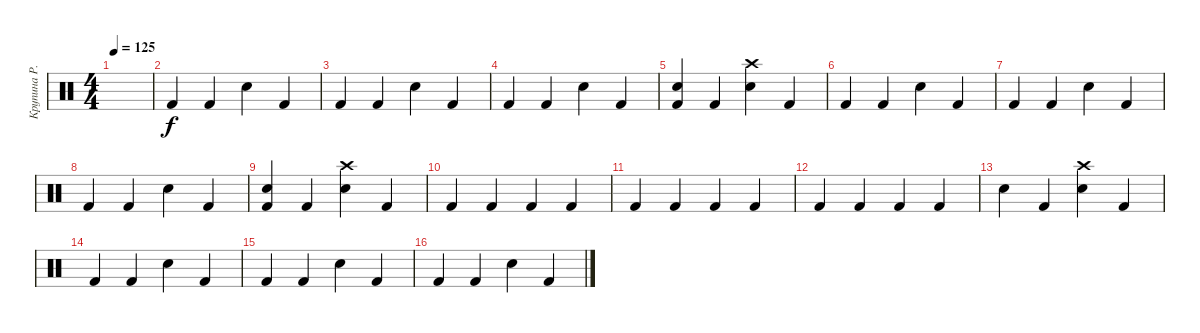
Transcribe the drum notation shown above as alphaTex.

\track ("Крупина Р.В." "Крупина Р.") {instrument percussion}
\staff {score}
\articulation defaults
\ts (4 4)
\tempo 125
\clef neutral
\ks c
|
"Kick (hit) 2".4 "Kick (hit) 2".4 "Snare (hit) 2".4 "Kick (hit) 2".4 |
"Kick (hit) 2".4 "Kick (hit) 2".4 "Snare (hit) 2".4 "Kick (hit) 2".4 |
"Kick (hit) 2".4 "Kick (hit) 2".4 "Snare (hit) 2".4 "Kick (hit) 2".4 |
("Snare (hit) 2" "Kick (hit) 2").4 "Kick (hit) 2".4 ("Crash high (hit)" "Snare (hit) 2").4 "Kick (hit) 2".4 |
"Kick (hit) 2".4 "Kick (hit) 2".4 "Snare (hit) 2".4 "Kick (hit) 2".4 |
"Kick (hit) 2".4 "Kick (hit) 2".4 "Snare (hit) 2".4 "Kick (hit) 2".4 |
"Kick (hit) 2".4 "Kick (hit) 2".4 "Snare (hit) 2".4 "Kick (hit) 2".4 |
("Snare (hit) 2" "Kick (hit) 2").4 "Kick (hit) 2".4 ("Crash high (hit)" "Snare (hit) 2").4 "Kick (hit) 2".4 |
"Kick (hit) 2".4 "Kick (hit) 2".4 "Kick (hit) 2".4 "Kick (hit) 2".4 |
"Kick (hit) 2".4 "Kick (hit) 2".4 "Kick (hit) 2".4 "Kick (hit) 2".4 |
"Kick (hit) 2".4 "Kick (hit) 2".4 "Kick (hit) 2".4 "Kick (hit) 2".4 |
"Snare (hit) 2".4 "Kick (hit) 2".4 ("Crash high (hit)" "Snare (hit) 2").4 "Kick (hit) 2".4 |
"Kick (hit) 2".4 "Kick (hit) 2".4 "Snare (hit) 2".4 "Kick (hit) 2".4 |
"Kick (hit) 2".4 "Kick (hit) 2".4 "Snare (hit) 2".4 "Kick (hit) 2".4 |
"Kick (hit) 2".4 "Kick (hit) 2".4 "Snare (hit) 2".4 "Kick (hit) 2".4
